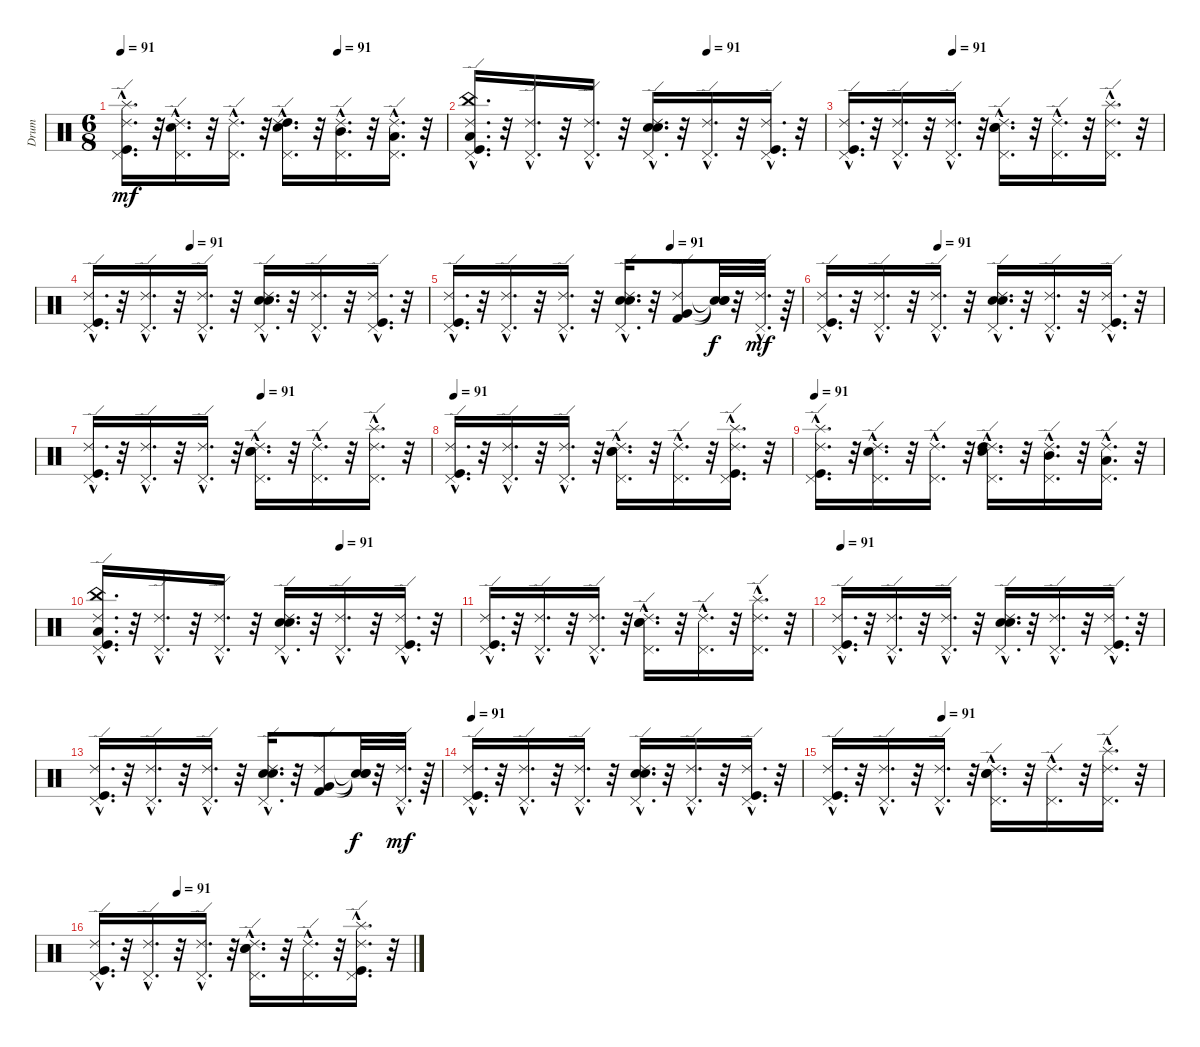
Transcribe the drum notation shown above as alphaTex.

\track ("Drum" "Drum") {instrument percussion}
\staff {score}
\articulation defaults
\ts (6 8)
\tempo 91
\tempo (91 0.6666666666666666)
\clef neutral
\ks c
("Splash (hit)"{hac} "Ride (edge) 2"{hac} "Pedal Hi-Hat (hit)"{hac} "Kick (hit)"{hac}).16{d dy mf} r.32 ("Ride (edge) 2"{hac} "Pedal Hi-Hat (hit)"{hac} "Snare (hit) 2"{hac}).16{d} r.32 ("Ride (edge) 2"{hac} "Pedal Hi-Hat (hit)"{hac}).16{d} r.32 ("High Tom (hit)"{hac} "Ride (edge) 2"{hac} "Snare (hit) 2"{hac} "Pedal Hi-Hat (hit)"{hac}).16{d} r.32 ("Mid Tom (hit)"{hac} "Ride (edge) 2"{hac} "Pedal Hi-Hat (hit)"{hac}).16{d} r.32 ("Low Tom (hit)"{hac} "Ride (edge) 2"{hac} "Pedal Hi-Hat (hit)"{hac}).16{d} r.32 |
\tempo (91 0.6666666666666666)
("Ride (edge) 2"{hac} "China (hit)"{hac} "Kick (hit)"{hac} "Pedal Hi-Hat (hit)"{hac} "Low Floor Tom (hit)"{hac}).16{d} r.32 ("Pedal Hi-Hat (hit)"{hac} "Ride (edge) 2"{hac}).16{d} r.32 ("Ride (edge) 2"{hac} "Pedal Hi-Hat (hit)"{hac}).16{d} r.32 ("Snare (hit) 2"{hac} "Pedal Hi-Hat (hit)"{hac} "Ride (edge) 2"{hac} "Hand Clap (hit)"{hac}).16{d} r.32 ("Pedal Hi-Hat (hit)"{hac} "Ride (edge) 2"{hac}).16{d} r.32 ("Kick (hit)"{hac} "Pedal Hi-Hat (hit)"{hac} "Ride (edge) 2"{hac}).16{d} r.32 |
\tempo (91 0.3333333333333333)
("Ride (edge) 2"{hac} "Pedal Hi-Hat (hit)"{hac} "Kick (hit)"{hac}).16{d} r.32 ("Ride (edge) 2"{hac} "Pedal Hi-Hat (hit)"{hac}).16{d} r.32 ("Ride (edge) 2"{hac} "Pedal Hi-Hat (hit)"{hac}).16{d} r.32 ("Hand Clap (hit)"{hac} "Ride (edge) 2"{hac} "Snare (hit) 2"{hac} "Pedal Hi-Hat (hit)"{hac}).16{d} r.32 ("Ride (edge) 2"{hac} "Pedal Hi-Hat (hit)"{hac}).16{d} r.32 ("Ride (edge) 2"{hac} "Pedal Hi-Hat (hit)"{hac} "Splash (hit)"{hac}).16{d} r.32 |
\tempo (91 0.2916666666666667)
("Ride (edge) 2"{hac} "Pedal Hi-Hat (hit)"{hac} "Kick (hit)"{hac}).16{d} r.32 ("Ride (edge) 2"{hac} "Pedal Hi-Hat (hit)"{hac}).16{d} r.32 ("Ride (edge) 2"{hac} "Pedal Hi-Hat (hit)"{hac}).16{d} r.32 ("Hand Clap (hit)"{hac} "Ride (edge) 2"{hac} "Snare (hit) 2"{hac} "Pedal Hi-Hat (hit)"{hac}).16{d} r.32 ("Ride (edge) 2"{hac} "Pedal Hi-Hat (hit)"{hac}).16{d} r.32 ("Kick (hit)"{hac} "Ride (edge) 2"{hac} "Pedal Hi-Hat (hit)"{hac}).16{d} r.32 |
\tempo (91 0.625)
("Kick (hit)"{hac} "Pedal Hi-Hat (hit)"{hac} "Ride (edge) 2"{hac}).16{d} r.32 ("Pedal Hi-Hat (hit)"{hac} "Ride (edge) 2"{hac}).16{d} r.32 ("Pedal Hi-Hat (hit)"{hac} "Ride (edge) 2"{hac}).16{d} r.32 ("Snare (hit) 2"{hac} "Pedal Hi-Hat (hit)"{hac} "Hand Clap (hit)"{hac} "Ride (edge) 2"{hac}).16{d} r.32 ("Kick (hit) 2" "Very Low Tom (hit)" "Ride (edge) 2").8 ("Snare (hit)"{t} "Snare (hit)"{t} "Snare (hit)"{t}).32{dy f} r.32 ("Ride (edge) 2"{hac} "Pedal Hi-Hat (hit)"{hac}).32{d dy mf} r.64 |
\tempo (91 0.3333333333333333)
("Kick (hit)"{hac} "Pedal Hi-Hat (hit)"{hac} "Ride (edge) 2"{hac}).16{d} r.32 ("Ride (edge) 2"{hac} "Pedal Hi-Hat (hit)"{hac}).16{d} r.32 ("Ride (edge) 2"{hac} "Pedal Hi-Hat (hit)"{hac}).16{d} r.32 ("Snare (hit) 2"{hac} "Hand Clap (hit)"{hac} "Pedal Hi-Hat (hit)"{hac} "Ride (edge) 2"{hac}).16{d} r.32 ("Ride (edge) 2"{hac} "Pedal Hi-Hat (hit)"{hac}).16{d} r.32 ("Pedal Hi-Hat (hit)"{hac} "Ride (edge) 2"{hac} "Kick (hit)"{hac}).16{d} r.32 |
\tempo (91 0.5)
("Kick (hit)"{hac} "Pedal Hi-Hat (hit)"{hac} "Ride (edge) 2"{hac}).16{d} r.32 ("Pedal Hi-Hat (hit)"{hac} "Ride (edge) 2"{hac}).16{d} r.32 ("Pedal Hi-Hat (hit)"{hac} "Ride (edge) 2"{hac}).16{d} r.32 ("Pedal Hi-Hat (hit)"{hac} "Snare (hit) 2"{hac} "Ride (edge) 2"{hac} "Hand Clap (hit)"{hac}).16{d} r.32 ("Pedal Hi-Hat (hit)"{hac} "Ride (edge) 2"{hac}).16{d} r.32 ("Splash (hit)"{hac} "Pedal Hi-Hat (hit)"{hac} "Ride (edge) 2"{hac}).16{d} r.32 |
\tempo 91
("Kick (hit)"{hac} "Pedal Hi-Hat (hit)"{hac} "Ride (edge) 2"{hac}).16{d} r.32 ("Pedal Hi-Hat (hit)"{hac} "Ride (edge) 2"{hac}).16{d} r.32 ("Pedal Hi-Hat (hit)"{hac} "Ride (edge) 2"{hac}).16{d} r.32 ("Pedal Hi-Hat (hit)"{hac} "Snare (hit) 2"{hac} "Ride (edge) 2"{hac} "Hand Clap (hit)"{hac}).16{d} r.32 ("Pedal Hi-Hat (hit)"{hac} "Ride (edge) 2"{hac}).16{d} r.32 ("Kick (hit)"{hac} "Pedal Hi-Hat (hit)"{hac} "Ride (edge) 2"{hac} "Splash (hit)"{hac}).16{d} r.32 |
\tempo 91
("Kick (hit)"{hac} "Splash (hit)"{hac} "Ride (edge) 2"{hac} "Pedal Hi-Hat (hit)"{hac}).16{d} r.32 ("Ride (edge) 2"{hac} "Snare (hit) 2"{hac} "Pedal Hi-Hat (hit)"{hac}).16{d} r.32 ("Ride (edge) 2"{hac} "Pedal Hi-Hat (hit)"{hac}).16{d} r.32 ("Snare (hit) 2"{hac} "Ride (edge) 2"{hac} "High Tom (hit)"{hac} "Pedal Hi-Hat (hit)"{hac}).16{d} r.32 ("Mid Tom (hit)"{hac} "Pedal Hi-Hat (hit)"{hac} "Ride (edge) 2"{hac}).16{d} r.32 ("Low Tom (hit)"{hac} "Ride (edge) 2"{hac} "Pedal Hi-Hat (hit)"{hac}).16{d} r.32 |
\tempo (91 0.6666666666666666)
("China (hit)"{hac} "Ride (edge) 2"{hac} "Pedal Hi-Hat (hit)"{hac} "Kick (hit)"{hac} "Low Floor Tom (hit)"{hac}).16{d} r.32 ("Ride (edge) 2"{hac} "Pedal Hi-Hat (hit)"{hac}).16{d} r.32 ("Ride (edge) 2"{hac} "Pedal Hi-Hat (hit)"{hac}).16{d} r.32 ("Hand Clap (hit)"{hac} "Ride (edge) 2"{hac} "Snare (hit) 2"{hac} "Pedal Hi-Hat (hit)"{hac}).16{d} r.32 ("Ride (edge) 2"{hac} "Pedal Hi-Hat (hit)"{hac}).16{d} r.32 ("Kick (hit)"{hac} "Ride (edge) 2"{hac} "Pedal Hi-Hat (hit)"{hac}).16{d} r.32 |
("Kick (hit)"{hac} "Pedal Hi-Hat (hit)"{hac} "Ride (edge) 2"{hac}).16{d} r.32 ("Pedal Hi-Hat (hit)"{hac} "Ride (edge) 2"{hac}).16{d} r.32 ("Pedal Hi-Hat (hit)"{hac} "Ride (edge) 2"{hac}).16{d} r.32 ("Pedal Hi-Hat (hit)"{hac} "Snare (hit) 2"{hac} "Ride (edge) 2"{hac} "Hand Clap (hit)"{hac}).16{d} r.32 ("Pedal Hi-Hat (hit)"{hac} "Ride (edge) 2"{hac}).16{d} r.32 ("Splash (hit)"{hac} "Pedal Hi-Hat (hit)"{hac} "Ride (edge) 2"{hac}).16{d} r.32 |
\tempo 91
("Kick (hit)"{hac} "Pedal Hi-Hat (hit)"{hac} "Ride (edge) 2"{hac}).16{d} r.32 ("Ride (edge) 2"{hac} "Pedal Hi-Hat (hit)"{hac}).16{d} r.32 ("Ride (edge) 2"{hac} "Pedal Hi-Hat (hit)"{hac}).16{d} r.32 ("Hand Clap (hit)"{hac} "Pedal Hi-Hat (hit)"{hac} "Ride (edge) 2"{hac} "Snare (hit) 2"{hac}).16{d} r.32 ("Ride (edge) 2"{hac} "Pedal Hi-Hat (hit)"{hac}).16{d} r.32 ("Ride (edge) 2"{hac} "Pedal Hi-Hat (hit)"{hac} "Kick (hit)"{hac}).16{d} r.32 |
("Kick (hit)"{hac} "Pedal Hi-Hat (hit)"{hac} "Ride (edge) 2"{hac}).16{d} r.32 ("Pedal Hi-Hat (hit)"{hac} "Ride (edge) 2"{hac}).16{d} r.32 ("Pedal Hi-Hat (hit)"{hac} "Ride (edge) 2"{hac}).16{d} r.32 ("Snare (hit) 2"{hac} "Pedal Hi-Hat (hit)"{hac} "Hand Clap (hit)"{hac} "Ride (edge) 2"{hac}).16{d} r.32 ("Kick (hit) 2" "Very Low Tom (hit)" "Ride (edge) 2").8 ("Snare (hit)"{t} "Snare (hit)"{t} "Snare (hit)"{t}).32{dy f} r.32 ("Ride (edge) 2"{hac} "Pedal Hi-Hat (hit)"{hac}).32{d dy mf} r.64 |
\tempo 91
("Pedal Hi-Hat (hit)"{hac} "Ride (edge) 2"{hac} "Kick (hit)"{hac}).16{d} r.32 ("Ride (edge) 2"{hac} "Pedal Hi-Hat (hit)"{hac}).16{d} r.32 ("Ride (edge) 2"{hac} "Pedal Hi-Hat (hit)"{hac}).16{d} r.32 ("Snare (hit) 2"{hac} "Pedal Hi-Hat (hit)"{hac} "Ride (edge) 2"{hac} "Hand Clap (hit)"{hac}).16{d} r.32 ("Ride (edge) 2"{hac} "Pedal Hi-Hat (hit)"{hac}).16{d} r.32 ("Ride (edge) 2"{hac} "Pedal Hi-Hat (hit)"{hac} "Kick (hit)"{hac}).16{d} r.32 |
\tempo (91 0.3333333333333333)
("Ride (edge) 2"{hac} "Kick (hit)"{hac} "Pedal Hi-Hat (hit)"{hac}).16{d} r.32 ("Ride (edge) 2"{hac} "Pedal Hi-Hat (hit)"{hac}).16{d} r.32 ("Pedal Hi-Hat (hit)"{hac} "Ride (edge) 2"{hac}).16{d} r.32 ("Pedal Hi-Hat (hit)"{hac} "Snare (hit) 2"{hac} "Ride (edge) 2"{hac} "Hand Clap (hit)"{hac}).16{d} r.32 ("Ride (edge) 2"{hac} "Pedal Hi-Hat (hit)"{hac}).16{d} r.32 ("Pedal Hi-Hat (hit)"{hac} "Ride (edge) 2"{hac} "Splash (hit)"{hac}).16{d} r.32 |
\tempo (91 0.25)
("Pedal Hi-Hat (hit)"{hac} "Kick (hit)"{hac} "Ride (edge) 2"{hac}).16{d} r.32 ("Pedal Hi-Hat (hit)"{hac} "Ride (edge) 2"{hac}).16{d} r.32 ("Ride (edge) 2"{hac} "Pedal Hi-Hat (hit)"{hac}).16{d} r.32 ("Ride (edge) 2"{hac} "Pedal Hi-Hat (hit)"{hac} "Hand Clap (hit)"{hac} "Snare (hit) 2"{hac}).16{d} r.32 ("Ride (edge) 2"{hac} "Pedal Hi-Hat (hit)"{hac}).16{d} r.32 ("Ride (edge) 2"{hac} "Splash (hit)"{hac} "Pedal Hi-Hat (hit)"{hac} "Kick (hit)"{hac}).16{d} r.32
